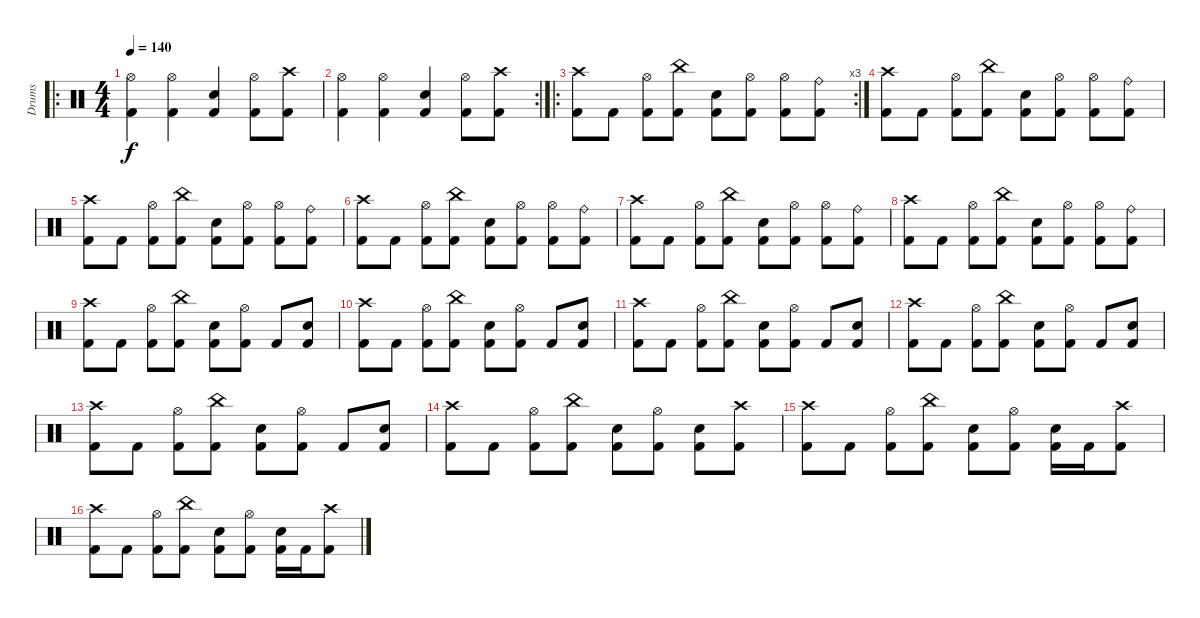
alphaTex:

\track ("Drums" "Drums") {instrument percussion}
\staff {score}
\articulation defaults
\ro
\ts (4 4)
\tempo 140
\clef neutral
\ks c
("Hi-Hat (open)" "Kick (hit) 2").4{dy f} ("Hi-Hat (open)" "Kick (hit) 2").4 ("Electric Snare (hit)" "Kick (hit) 2").4 ("Hi-Hat (open)" "Kick (hit) 2").8 ("Crash high (hit)" "Kick (hit) 2").8 |
\rc 2
("Hi-Hat (open)" "Kick (hit) 2").4 ("Hi-Hat (open)" "Kick (hit) 2").4 ("Electric Snare (hit)" "Kick (hit) 2").4 ("Hi-Hat (open)" "Kick (hit) 2").8 ("Crash high (hit)" "Kick (hit) 2").8 |
\ro
\rc 3
("Crash high (hit)" "Kick (hit) 2").8 "Kick (hit) 2".8 ("Hi-Hat (open)" "Kick (hit) 2").8 ("China (hit)" "Kick (hit) 2").8 ("Electric Snare (hit)" "Kick (hit) 2").8 ("Hi-Hat (open)" "Kick (hit) 2").8 ("Hi-Hat (open)" "Kick (hit) 2").8 ("Ride (bell)" "Kick (hit) 2").8 |
("Crash high (hit)" "Kick (hit) 2").8 "Kick (hit) 2".8 ("Hi-Hat (open)" "Kick (hit) 2").8 ("China (hit)" "Kick (hit) 2").8 ("Electric Snare (hit)" "Kick (hit) 2").8 ("Hi-Hat (open)" "Kick (hit) 2").8 ("Hi-Hat (open)" "Kick (hit) 2").8 ("Ride (bell)" "Kick (hit) 2").8 |
("Crash high (hit)" "Kick (hit) 2").8 "Kick (hit) 2".8 ("Hi-Hat (open)" "Kick (hit) 2").8 ("China (hit)" "Kick (hit) 2").8 ("Electric Snare (hit)" "Kick (hit) 2").8 ("Hi-Hat (open)" "Kick (hit) 2").8 ("Hi-Hat (open)" "Kick (hit) 2").8 ("Ride (bell)" "Kick (hit) 2").8 |
("Crash high (hit)" "Kick (hit) 2").8 "Kick (hit) 2".8 ("Hi-Hat (open)" "Kick (hit) 2").8 ("China (hit)" "Kick (hit) 2").8 ("Electric Snare (hit)" "Kick (hit) 2").8 ("Hi-Hat (open)" "Kick (hit) 2").8 ("Hi-Hat (open)" "Kick (hit) 2").8 ("Ride (bell)" "Kick (hit) 2").8 |
("Crash high (hit)" "Kick (hit) 2").8 "Kick (hit) 2".8 ("Hi-Hat (open)" "Kick (hit) 2").8 ("China (hit)" "Kick (hit) 2").8 ("Electric Snare (hit)" "Kick (hit) 2").8 ("Hi-Hat (open)" "Kick (hit) 2").8 ("Hi-Hat (open)" "Kick (hit) 2").8 ("Ride (bell)" "Kick (hit) 2").8 |
("Crash high (hit)" "Kick (hit) 2").8 "Kick (hit) 2".8 ("Hi-Hat (open)" "Kick (hit) 2").8 ("China (hit)" "Kick (hit) 2").8 ("Electric Snare (hit)" "Kick (hit) 2").8 ("Hi-Hat (open)" "Kick (hit) 2").8 ("Hi-Hat (open)" "Kick (hit) 2").8 ("Ride (bell)" "Kick (hit) 2").8 |
("Crash high (hit)" "Kick (hit) 2").8 "Kick (hit) 2".8 ("Hi-Hat (open)" "Kick (hit) 2").8 ("China (hit)" "Kick (hit) 2").8 ("Electric Snare (hit)" "Kick (hit) 2").8 ("Hi-Hat (open)" "Kick (hit) 2").8 "Kick (hit) 2".8 ("Electric Snare (hit)" "Kick (hit) 2").8 |
("Crash high (hit)" "Kick (hit) 2").8 "Kick (hit) 2".8 ("Hi-Hat (open)" "Kick (hit) 2").8 ("China (hit)" "Kick (hit) 2").8 ("Electric Snare (hit)" "Kick (hit) 2").8 ("Hi-Hat (open)" "Kick (hit) 2").8 "Kick (hit) 2".8 ("Electric Snare (hit)" "Kick (hit) 2").8 |
("Crash high (hit)" "Kick (hit) 2").8 "Kick (hit) 2".8 ("Hi-Hat (open)" "Kick (hit) 2").8 ("China (hit)" "Kick (hit) 2").8 ("Electric Snare (hit)" "Kick (hit) 2").8 ("Hi-Hat (open)" "Kick (hit) 2").8 "Kick (hit) 2".8 ("Electric Snare (hit)" "Kick (hit) 2").8 |
("Crash high (hit)" "Kick (hit) 2").8 "Kick (hit) 2".8 ("Hi-Hat (open)" "Kick (hit) 2").8 ("China (hit)" "Kick (hit) 2").8 ("Electric Snare (hit)" "Kick (hit) 2").8 ("Hi-Hat (open)" "Kick (hit) 2").8 "Kick (hit) 2".8 ("Electric Snare (hit)" "Kick (hit) 2").8 |
("Crash high (hit)" "Kick (hit) 2").8 "Kick (hit) 2".8 ("Hi-Hat (open)" "Kick (hit) 2").8 ("China (hit)" "Kick (hit) 2").8 ("Electric Snare (hit)" "Kick (hit) 2").8 ("Hi-Hat (open)" "Kick (hit) 2").8 "Kick (hit) 2".8 ("Electric Snare (hit)" "Kick (hit) 2").8 |
("Crash high (hit)" "Kick (hit) 2").8 "Kick (hit) 2".8 ("Hi-Hat (open)" "Kick (hit) 2").8 ("China (hit)" "Kick (hit) 2").8 ("Electric Snare (hit)" "Kick (hit) 2").8 ("Hi-Hat (open)" "Kick (hit) 2").8 ("Electric Snare (hit)" "Kick (hit) 2").8 ("Crash high (hit)" "Kick (hit) 2").8 |
("Crash high (hit)" "Kick (hit) 2").8 "Kick (hit) 2".8 ("Hi-Hat (open)" "Kick (hit) 2").8 ("China (hit)" "Kick (hit) 2").8 ("Electric Snare (hit)" "Kick (hit) 2").8 ("Hi-Hat (open)" "Kick (hit) 2").8 ("Electric Snare (hit)" "Kick (hit) 2").16 "Kick (hit) 2".16 ("Crash high (hit)" "Kick (hit) 2").8 |
("Crash high (hit)" "Kick (hit) 2").8 "Kick (hit) 2".8 ("Hi-Hat (open)" "Kick (hit) 2").8 ("China (hit)" "Kick (hit) 2").8 ("Electric Snare (hit)" "Kick (hit) 2").8 ("Hi-Hat (open)" "Kick (hit) 2").8 ("Electric Snare (hit)" "Kick (hit) 2").16 "Kick (hit) 2".16 ("Crash high (hit)" "Kick (hit) 2").8
